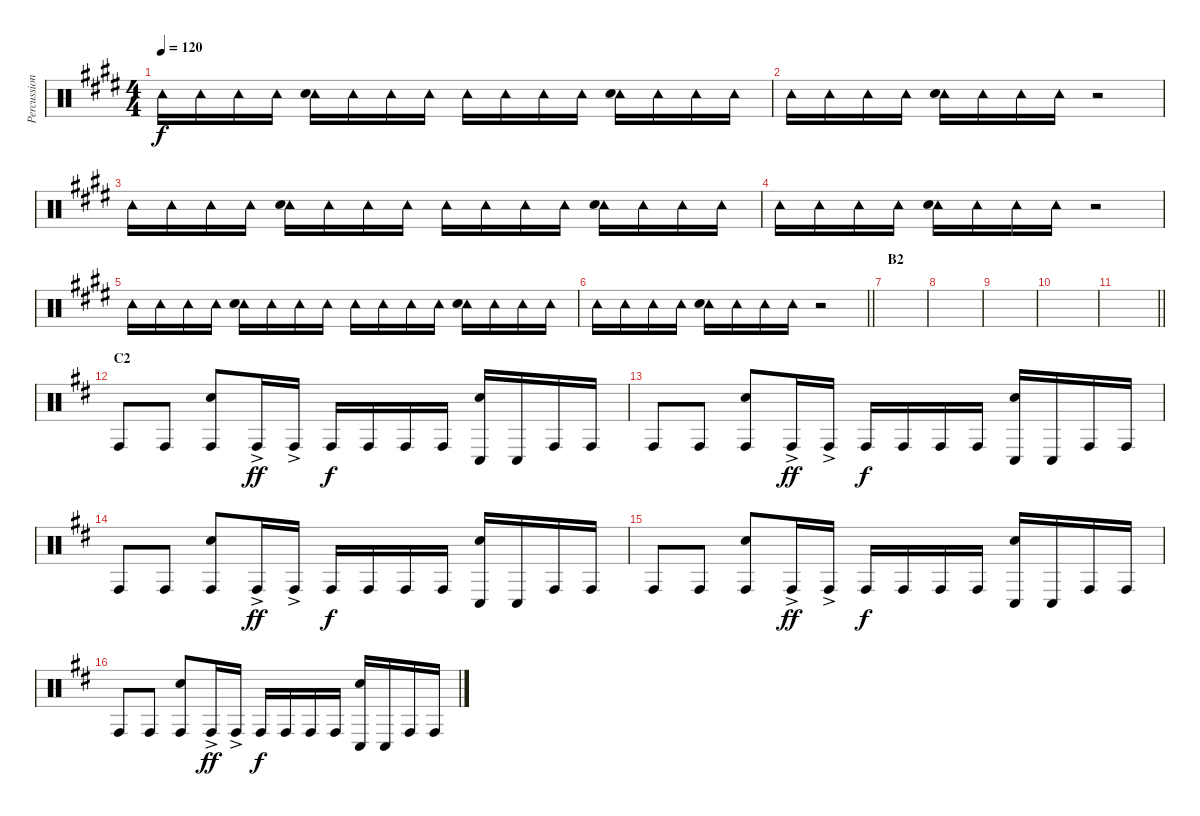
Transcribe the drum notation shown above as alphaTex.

\track ("Percussion" "Percussion") {instrument percussion}
\staff {score}
\articulation defaults
\ts (4 4)
\tempo 120
\clef neutral
\ks e "Tambourine (hit)".16{dy f} "Tambourine (hit)".16 "Tambourine (hit)".16 "Tambourine (hit)".16
("Tambourine (hit)" "Hand Clap (hit)").16 "Tambourine (hit)".16 "Tambourine (hit)".16 "Tambourine (hit)".16 "Tambourine (hit)".16 "Tambourine (hit)".16 "Tambourine (hit)".16 "Tambourine (hit)".16 ("Tambourine (hit)" "Hand Clap (hit)").16 "Tambourine (hit)".16 "Tambourine (hit)".16 "Tambourine (hit)".16 |
"Tambourine (hit)".16 "Tambourine (hit)".16 "Tambourine (hit)".16 "Tambourine (hit)".16 ("Tambourine (hit)" "Hand Clap (hit)").16 "Tambourine (hit)".16 "Tambourine (hit)".16 "Tambourine (hit)".16 r.2 |
"Tambourine (hit)".16 "Tambourine (hit)".16 "Tambourine (hit)".16 "Tambourine (hit)".16 ("Tambourine (hit)" "Hand Clap (hit)").16 "Tambourine (hit)".16 "Tambourine (hit)".16 "Tambourine (hit)".16 "Tambourine (hit)".16 "Tambourine (hit)".16 "Tambourine (hit)".16 "Tambourine (hit)".16 ("Tambourine (hit)" "Hand Clap (hit)").16 "Tambourine (hit)".16 "Tambourine (hit)".16 "Tambourine (hit)".16 |
"Tambourine (hit)".16 "Tambourine (hit)".16 "Tambourine (hit)".16 "Tambourine (hit)".16 ("Tambourine (hit)" "Hand Clap (hit)").16 "Tambourine (hit)".16 "Tambourine (hit)".16 "Tambourine (hit)".16 r.2 |
"Tambourine (hit)".16 "Tambourine (hit)".16 "Tambourine (hit)".16 "Tambourine (hit)".16 ("Tambourine (hit)" "Hand Clap (hit)").16 "Tambourine (hit)".16 "Tambourine (hit)".16 "Tambourine (hit)".16 "Tambourine (hit)".16 "Tambourine (hit)".16 "Tambourine (hit)".16 "Tambourine (hit)".16 ("Tambourine (hit)" "Hand Clap (hit)").16 "Tambourine (hit)".16 "Tambourine (hit)".16 "Tambourine (hit)".16 |
\barLineRight lightlight "Tambourine (hit)".16 "Tambourine (hit)".16 "Tambourine (hit)".16 "Tambourine (hit)".16
("Tambourine (hit)" "Hand Clap (hit)").16 "Tambourine (hit)".16 "Tambourine (hit)".16 "Tambourine (hit)".16 r.2 |
\section ("" "B2")
|
|
|
|
\barLineRight lightlight
|
\section ("" "C2")
\ks d "Conga high (hit)".8 "Conga high (hit)".8
("Conga high (hit)" "Hand Clap (hit)").8 "Conga high (hit)"{ac}.16{dy ff} "Conga high (hit)"{ac}.16 "Conga high (hit)".16{dy f} "Conga high (hit)".16 "Conga high (hit)".16 "Conga high (hit)".16 ("Hand Clap (hit)" "Conga low (hit)").16 "Conga low (hit)".16 "Conga high (hit)".16 "Conga high (hit)".16 |
"Conga high (hit)".8 "Conga high (hit)".8 ("Conga high (hit)" "Hand Clap (hit)").8 "Conga high (hit)"{ac}.16{dy ff} "Conga high (hit)"{ac}.16 "Conga high (hit)".16{dy f} "Conga high (hit)".16 "Conga high (hit)".16 "Conga high (hit)".16 ("Hand Clap (hit)" "Conga low (hit)").16 "Conga low (hit)".16 "Conga high (hit)".16 "Conga high (hit)".16 |
"Conga high (hit)".8 "Conga high (hit)".8 ("Conga high (hit)" "Hand Clap (hit)").8 "Conga high (hit)"{ac}.16{dy ff} "Conga high (hit)"{ac}.16 "Conga high (hit)".16{dy f} "Conga high (hit)".16 "Conga high (hit)".16 "Conga high (hit)".16 ("Hand Clap (hit)" "Conga low (hit)").16 "Conga low (hit)".16 "Conga high (hit)".16 "Conga high (hit)".16 |
"Conga high (hit)".8 "Conga high (hit)".8 ("Conga high (hit)" "Hand Clap (hit)").8 "Conga high (hit)"{ac}.16{dy ff} "Conga high (hit)"{ac}.16 "Conga high (hit)".16{dy f} "Conga high (hit)".16 "Conga high (hit)".16 "Conga high (hit)".16 ("Hand Clap (hit)" "Conga low (hit)").16 "Conga low (hit)".16 "Conga high (hit)".16 "Conga high (hit)".16 |
"Conga high (hit)".8 "Conga high (hit)".8 ("Conga high (hit)" "Hand Clap (hit)").8 "Conga high (hit)"{ac}.16{dy ff} "Conga high (hit)"{ac}.16 "Conga high (hit)".16{dy f} "Conga high (hit)".16 "Conga high (hit)".16 "Conga high (hit)".16 ("Hand Clap (hit)" "Conga low (hit)").16 "Conga low (hit)".16 "Conga high (hit)".16 "Conga high (hit)".16
